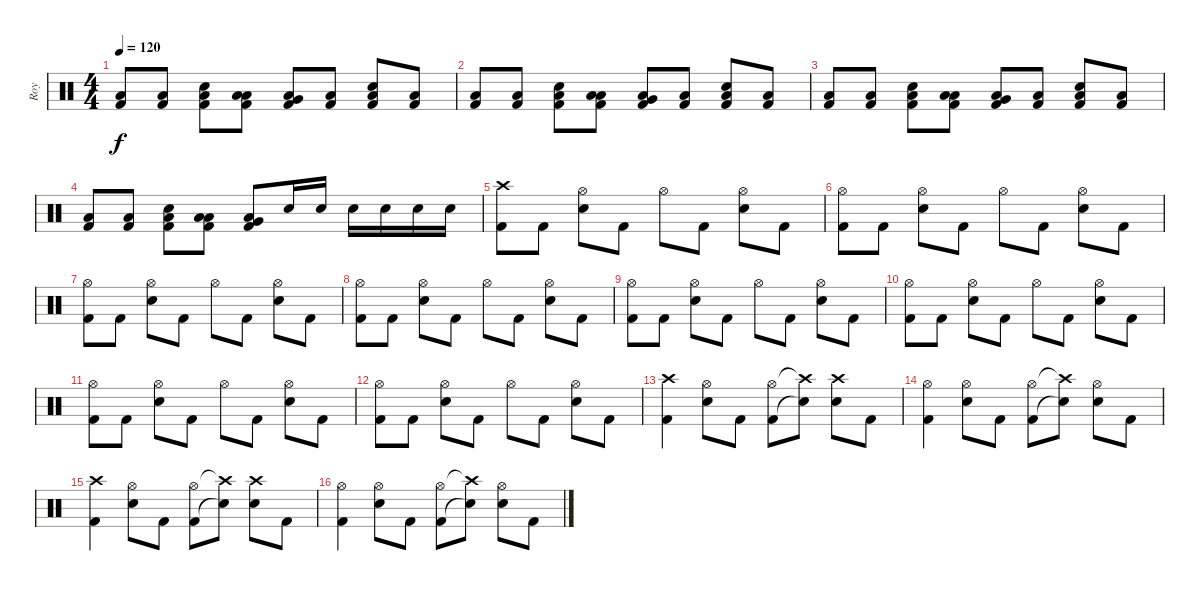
\track ("Roy" "Roy") {instrument percussion}
\staff {score}
\articulation defaults
\ts (4 4)
\tempo 120
\clef neutral
\ks c
("Low Floor Tom (hit)" "Kick (hit) 2").8{dy f} ("Low Floor Tom (hit)" "Kick (hit) 2").8 ("Electric Snare (hit)" "Low Floor Tom (hit)" "Kick (hit) 2").8 ("Low Tom (hit)" "Low Floor Tom (hit)" "Kick (hit) 2").8 ("Very Low Tom (hit)" "Low Floor Tom (hit)" "Kick (hit) 2").8 ("Low Floor Tom (hit)" "Kick (hit) 2").8 ("Electric Snare (hit)" "Low Floor Tom (hit)" "Kick (hit) 2").8 ("Low Floor Tom (hit)" "Kick (hit) 2").8 |
("Low Floor Tom (hit)" "Kick (hit) 2").8 ("Low Floor Tom (hit)" "Kick (hit) 2").8 ("Electric Snare (hit)" "Low Floor Tom (hit)" "Kick (hit) 2").8 ("Low Tom (hit)" "Low Floor Tom (hit)" "Kick (hit) 2").8 ("Very Low Tom (hit)" "Low Floor Tom (hit)" "Kick (hit) 2").8 ("Low Floor Tom (hit)" "Kick (hit) 2").8 ("Electric Snare (hit)" "Low Floor Tom (hit)" "Kick (hit) 2").8 ("Low Floor Tom (hit)" "Kick (hit) 2").8 |
("Low Floor Tom (hit)" "Kick (hit) 2").8 ("Low Floor Tom (hit)" "Kick (hit) 2").8 ("Electric Snare (hit)" "Low Floor Tom (hit)" "Kick (hit) 2").8 ("Low Tom (hit)" "Low Floor Tom (hit)" "Kick (hit) 2").8 ("Very Low Tom (hit)" "Low Floor Tom (hit)" "Kick (hit) 2").8 ("Low Floor Tom (hit)" "Kick (hit) 2").8 ("Electric Snare (hit)" "Low Floor Tom (hit)" "Kick (hit) 2").8 ("Low Floor Tom (hit)" "Kick (hit) 2").8 |
("Low Floor Tom (hit)" "Kick (hit) 2").8 ("Low Floor Tom (hit)" "Kick (hit) 2").8 ("Electric Snare (hit)" "Low Floor Tom (hit)" "Kick (hit) 2").8 ("Low Tom (hit)" "Low Floor Tom (hit)" "Kick (hit) 2").8 ("Very Low Tom (hit)" "Low Floor Tom (hit)" "Kick (hit) 2").8 "Electric Snare (hit)".16 "Electric Snare (hit)".16 "Electric Snare (hit)".16 "Electric Snare (hit)".16 "Electric Snare (hit)".16 "Electric Snare (hit)".16 |
("Crash high (hit)" "Kick (hit) 2").8 "Kick (hit) 2".8 ("Hi-Hat (open)" "Electric Snare (hit)").8 "Kick (hit) 2".8 "Hi-Hat (open)".8 "Kick (hit) 2".8 ("Hi-Hat (open)" "Electric Snare (hit)").8 "Kick (hit) 2".8 |
("Hi-Hat (open)" "Kick (hit) 2").8 "Kick (hit) 2".8 ("Hi-Hat (open)" "Electric Snare (hit)").8 "Kick (hit) 2".8 "Hi-Hat (open)".8 "Kick (hit) 2".8 ("Hi-Hat (open)" "Electric Snare (hit)").8 "Kick (hit) 2".8 |
("Hi-Hat (open)" "Kick (hit) 2").8 "Kick (hit) 2".8 ("Hi-Hat (open)" "Electric Snare (hit)").8 "Kick (hit) 2".8 "Hi-Hat (open)".8 "Kick (hit) 2".8 ("Hi-Hat (open)" "Electric Snare (hit)").8 "Kick (hit) 2".8 |
("Hi-Hat (open)" "Kick (hit) 2").8 "Kick (hit) 2".8 ("Hi-Hat (open)" "Electric Snare (hit)").8 "Kick (hit) 2".8 "Hi-Hat (open)".8 "Kick (hit) 2".8 ("Hi-Hat (open)" "Electric Snare (hit)").8 "Kick (hit) 2".8 |
("Hi-Hat (open)" "Kick (hit) 2").8 "Kick (hit) 2".8 ("Hi-Hat (open)" "Electric Snare (hit)").8 "Kick (hit) 2".8 "Hi-Hat (open)".8 "Kick (hit) 2".8 ("Hi-Hat (open)" "Electric Snare (hit)").8 "Kick (hit) 2".8 |
("Hi-Hat (open)" "Kick (hit) 2").8 "Kick (hit) 2".8 ("Hi-Hat (open)" "Electric Snare (hit)").8 "Kick (hit) 2".8 "Hi-Hat (open)".8 "Kick (hit) 2".8 ("Hi-Hat (open)" "Electric Snare (hit)").8 "Kick (hit) 2".8 |
("Hi-Hat (open)" "Kick (hit) 2").8 "Kick (hit) 2".8 ("Hi-Hat (open)" "Electric Snare (hit)").8 "Kick (hit) 2".8 "Hi-Hat (open)".8 "Kick (hit) 2".8 ("Hi-Hat (open)" "Electric Snare (hit)").8 "Kick (hit) 2".8 |
("Hi-Hat (open)" "Kick (hit) 2").8 "Kick (hit) 2".8 ("Hi-Hat (open)" "Electric Snare (hit)").8 "Kick (hit) 2".8 "Hi-Hat (open)".8 "Kick (hit) 2".8 ("Hi-Hat (open)" "Electric Snare (hit)").8 "Kick (hit) 2".8 |
("Crash high (hit)" "Kick (hit) 2").4 ("Hi-Hat (open)" "Electric Snare (hit)").8 "Kick (hit) 2".8 ("Hi-Hat (open)" "Kick (hit) 2").8 ("Crash high (hit)"{t} "Electric Snare (hit)"{t}).8 ("Crash high (hit)" "Electric Snare (hit)").8 "Kick (hit) 2".8 |
("Hi-Hat (open)" "Kick (hit) 2").4 ("Hi-Hat (open)" "Electric Snare (hit)").8 "Kick (hit) 2".8 ("Hi-Hat (open)" "Kick (hit) 2").8 ("Crash high (hit)"{t} "Electric Snare (hit)"{t}).8 ("Hi-Hat (open)" "Electric Snare (hit)").8 "Kick (hit) 2".8 |
("Crash high (hit)" "Kick (hit) 2").4 ("Hi-Hat (open)" "Electric Snare (hit)").8 "Kick (hit) 2".8 ("Hi-Hat (open)" "Kick (hit) 2").8 ("Crash high (hit)"{t} "Electric Snare (hit)"{t}).8 ("Crash high (hit)" "Electric Snare (hit)").8 "Kick (hit) 2".8 |
("Hi-Hat (open)" "Kick (hit) 2").4 ("Hi-Hat (open)" "Electric Snare (hit)").8 "Kick (hit) 2".8 ("Hi-Hat (open)" "Kick (hit) 2").8 ("Crash high (hit)"{t} "Electric Snare (hit)"{t}).8 ("Hi-Hat (open)" "Electric Snare (hit)").8 "Kick (hit) 2".8
